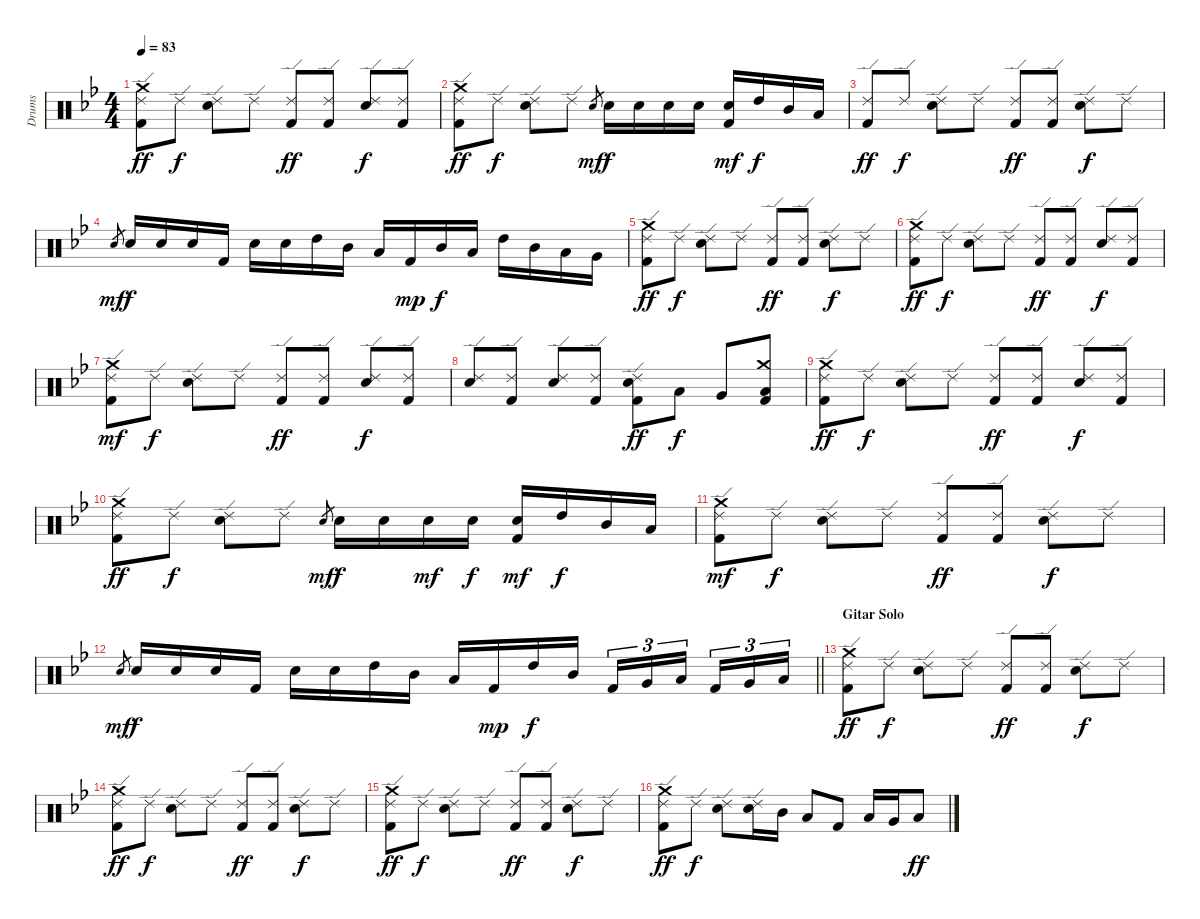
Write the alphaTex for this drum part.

\track ("Drums" "Drums") {instrument percussion}
\staff {score}
\articulation defaults
\ts (4 4)
\tempo 83
\clef neutral
\ks gminor
("Ride (edge) 2" "Kick (hit) 2" "Crash medium (hit)").8{dy ff} "Ride (edge) 2".8{dy f} ("Ride (edge) 2" "Electric Snare (hit)").8 "Ride (edge) 2".8 ("Ride (edge) 2" "Kick (hit) 2").8{dy ff} ("Ride (edge) 2" "Kick (hit) 2").8 ("Ride (edge) 2" "Electric Snare (hit)").8{dy f} ("Ride (edge) 2" "Kick (hit) 2").8 |
("Ride (edge) 2" "Kick (hit) 2" "Crash medium (hit)").8{dy ff} "Ride (edge) 2".8{dy f} ("Ride (edge) 2" "Electric Snare (hit)").8 "Ride (edge) 2".8 "Electric Snare (hit)".8{gr dy mf} "Electric Snare (hit)".16{dy f} "Electric Snare (hit)".16 "Electric Snare (hit)".16 "Electric Snare (hit)".16 ("Kick (hit) 2" "Electric Snare (hit)").16{dy mf} "High Tom (hit)".16{dy f} "Mid Tom (hit)".16 "Low Tom (hit)".16 |
("Ride (edge) 2" "Kick (hit) 2").8{dy ff} "Ride (edge) 2".8{dy f} ("Ride (edge) 2" "Electric Snare (hit)").8 "Ride (edge) 2".8 ("Ride (edge) 2" "Kick (hit) 2").8{dy ff} ("Ride (edge) 2" "Kick (hit) 2").8 ("Ride (edge) 2" "Electric Snare (hit)").8{dy f} "Ride (edge) 2".8 |
"Electric Snare (hit)".8{gr dy mf} "Electric Snare (hit)".16{dy f} "Electric Snare (hit)".16 "Electric Snare (hit)".16 "Kick (hit) 2".16 "Electric Snare (hit)".16 "Electric Snare (hit)".16 "High Tom (hit)".16 "Mid Tom (hit)".16 "Low Floor Tom (hit)".16 "Kick (hit) 2".16{dy mp} "Mid Tom (hit)".16{dy f} "Low Tom (hit)".16 "High Tom (hit)".16 "Mid Tom (hit)".16 "Low Tom (hit)".16 "Very Low Tom (hit)".16 |
("Ride (edge) 2" "Kick (hit) 2" "Crash medium (hit)").8{dy ff} "Ride (edge) 2".8{dy f} ("Ride (edge) 2" "Electric Snare (hit)").8 "Ride (edge) 2".8 ("Ride (edge) 2" "Kick (hit) 2").8{dy ff} ("Ride (edge) 2" "Kick (hit) 2").8 ("Ride (edge) 2" "Electric Snare (hit)").8{dy f} "Ride (edge) 2".8 |
("Ride (edge) 2" "Kick (hit) 2" "Crash medium (hit)").8{dy ff} "Ride (edge) 2".8{dy f} ("Ride (edge) 2" "Electric Snare (hit)").8 "Ride (edge) 2".8 ("Ride (edge) 2" "Kick (hit) 2").8{dy ff} ("Ride (edge) 2" "Kick (hit) 2").8 ("Ride (edge) 2" "Electric Snare (hit)").8{dy f} ("Ride (edge) 2" "Kick (hit) 2").8 |
("Ride (edge) 2" "Kick (hit) 2" "Crash medium (hit)").8{dy mf} "Ride (edge) 2".8{dy f} ("Ride (edge) 2" "Electric Snare (hit)").8 "Ride (edge) 2".8 ("Ride (edge) 2" "Kick (hit) 2").8{dy ff} ("Ride (edge) 2" "Kick (hit) 2").8 ("Ride (edge) 2" "Electric Snare (hit)").8{dy f} ("Ride (edge) 2" "Kick (hit) 2").8 |
("Ride (edge) 2" "Electric Snare (hit)").8 ("Ride (edge) 2" "Kick (hit) 2").8 ("Ride (edge) 2" "Electric Snare (hit)").8 ("Ride (edge) 2" "Kick (hit) 2").8 ("Ride (edge) 2" "Kick (hit) 2" "Electric Snare (hit)").8{dy ff} "Low Tom (hit)".8{dy f} "Very Low Tom (hit)".8 ("Kick (hit) 2" "Low Floor Tom (hit)" "Crash medium (hit)").8 |
("Ride (edge) 2" "Kick (hit) 2" "Crash medium (hit)").8{dy ff} "Ride (edge) 2".8{dy f} ("Ride (edge) 2" "Electric Snare (hit)").8 "Ride (edge) 2".8 ("Ride (edge) 2" "Kick (hit) 2").8{dy ff} ("Ride (edge) 2" "Kick (hit) 2").8 ("Ride (edge) 2" "Electric Snare (hit)").8{dy f} ("Ride (edge) 2" "Kick (hit) 2").8 |
("Ride (edge) 2" "Kick (hit) 2" "Crash medium (hit)").8{dy ff} "Ride (edge) 2".8{dy f} ("Ride (edge) 2" "Electric Snare (hit)").8 "Ride (edge) 2".8 "Electric Snare (hit)".8{gr dy mf} "Electric Snare (hit)".16{dy f} "Electric Snare (hit)".16 "Electric Snare (hit)".16{dy mf} "Electric Snare (hit)".16{dy f} ("Kick (hit) 2" "Electric Snare (hit)").16{dy mf} "High Tom (hit)".16{dy f} "Mid Tom (hit)".16 "Low Tom (hit)".16 |
("Ride (edge) 2" "Kick (hit) 2" "Crash medium (hit)").8{dy mf} "Ride (edge) 2".8{dy f} ("Ride (edge) 2" "Electric Snare (hit)").8 "Ride (edge) 2".8 ("Ride (edge) 2" "Kick (hit) 2").8{dy ff} ("Ride (edge) 2" "Kick (hit) 2").8 ("Ride (edge) 2" "Electric Snare (hit)").8{dy f} "Ride (edge) 2".8 |
\barLineRight lightlight "Electric Snare (hit)".8{gr dy mf} "Electric Snare (hit)".16{dy f} "Electric Snare (hit)".16 "Electric Snare (hit)".16 "Kick (hit) 2".16 "Electric Snare (hit)".16 "Electric Snare (hit)".16 "High Tom (hit)".16 "Mid Tom (hit)".16 "Low Floor Tom (hit)".16 "Kick (hit) 2".16{dy mp} "High Tom (hit)".16{dy f} "Mid Tom (hit)".16 "Kick (hit) 2".16{tu (3 2)} "Very Low Tom (hit)".16{tu (3 2)} "Low Floor Tom (hit)".16{tu (3 2) beam splitsecondary} "Kick (hit) 2".16{tu (3 2)} "Very Low Tom (hit)".16{tu (3 2)} "Low Floor Tom (hit)".16{tu (3 2)}
|
\section ("" "Gitar Solo")
("Ride (edge) 2" "Kick (hit) 2" "Crash medium (hit)").8{dy ff} "Ride (edge) 2".8{dy f} ("Ride (edge) 2" "Electric Snare (hit)").8 "Ride (edge) 2".8 ("Ride (edge) 2" "Kick (hit) 2").8{dy ff} ("Ride (edge) 2" "Kick (hit) 2").8 ("Ride (edge) 2" "Electric Snare (hit)").8{dy f} "Ride (edge) 2".8 |
("Ride (edge) 2" "Kick (hit) 2" "Crash medium (hit)").8{dy ff} "Ride (edge) 2".8{dy f} ("Ride (edge) 2" "Electric Snare (hit)").8 "Ride (edge) 2".8 ("Ride (edge) 2" "Kick (hit) 2").8{dy ff} ("Ride (edge) 2" "Kick (hit) 2").8 ("Ride (edge) 2" "Electric Snare (hit)").8{dy f} "Ride (edge) 2".8 |
("Ride (edge) 2" "Kick (hit) 2" "Crash medium (hit)").8{dy ff} "Ride (edge) 2".8{dy f} ("Ride (edge) 2" "Electric Snare (hit)").8 "Ride (edge) 2".8 ("Ride (edge) 2" "Kick (hit) 2").8{dy ff} ("Ride (edge) 2" "Kick (hit) 2").8 ("Ride (edge) 2" "Electric Snare (hit)").8{dy f} "Ride (edge) 2".8 |
("Ride (edge) 2" "Kick (hit) 2" "Crash medium (hit)").8{dy ff} "Ride (edge) 2".8{dy f} ("Ride (edge) 2" "Electric Snare (hit)").8 ("Ride (edge) 2" "Electric Snare (hit)").16 "Mid Tom (hit)".16 "Low Tom (hit)".8 "Kick (hit) 2".8 "Low Tom (hit)".16 "Very Low Tom (hit)".16 "Low Floor Tom (hit)".8{dy ff}
